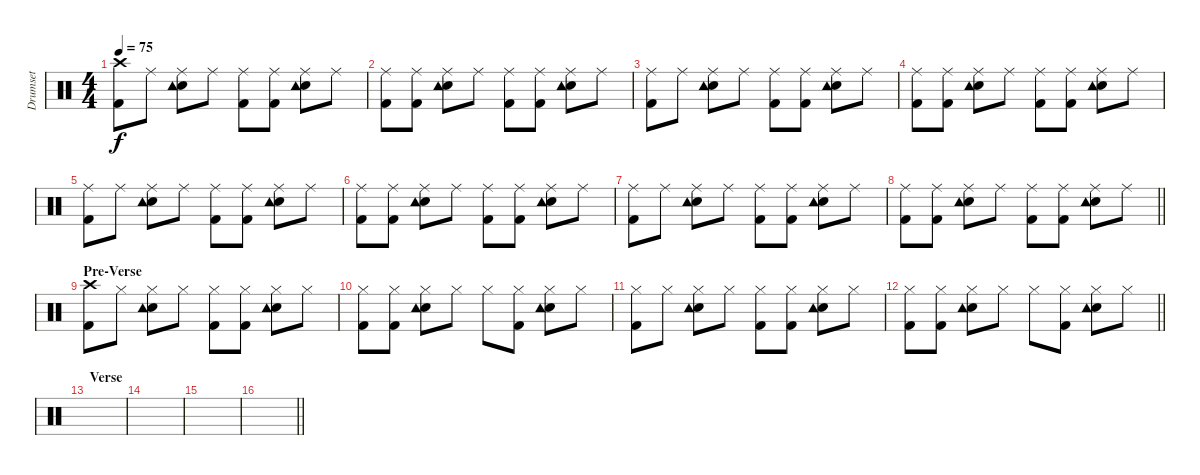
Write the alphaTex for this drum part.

\track ("Drumset" "Drumset") {instrument percussion}
\staff {score}
\articulation defaults
\ts (4 4)
\tempo 75
\clef neutral
\ks c
("Crash high (hit)" "Kick (hit) 2").8{dy f} "Ride (middle)".8 ("Ride (middle)" "Electric Snare (hit)" "Tambourine (hit)").8 "Ride (middle)".8 ("Ride (middle)" "Kick (hit) 2").8 ("Ride (middle)" "Kick (hit) 2").8 ("Ride (middle)" "Electric Snare (hit)" "Tambourine (hit)").8 "Ride (middle)".8 |
("Ride (middle)" "Kick (hit) 2").8 ("Ride (middle)" "Kick (hit) 2").8 ("Ride (middle)" "Electric Snare (hit)" "Tambourine (hit)").8 "Ride (middle)".8 ("Ride (middle)" "Kick (hit) 2").8 ("Ride (middle)" "Kick (hit) 2").8 ("Ride (middle)" "Electric Snare (hit)" "Tambourine (hit)").8 "Ride (middle)".8 |
("Ride (middle)" "Kick (hit) 2").8 "Ride (middle)".8 ("Ride (middle)" "Electric Snare (hit)" "Tambourine (hit)").8 "Ride (middle)".8 ("Ride (middle)" "Kick (hit) 2").8 ("Ride (middle)" "Kick (hit) 2").8 ("Ride (middle)" "Electric Snare (hit)" "Tambourine (hit)").8 "Ride (middle)".8 |
("Ride (middle)" "Kick (hit) 2").8 ("Ride (middle)" "Kick (hit) 2").8 ("Ride (middle)" "Electric Snare (hit)" "Tambourine (hit)").8 "Ride (middle)".8 ("Ride (middle)" "Kick (hit) 2").8 ("Ride (middle)" "Kick (hit) 2").8 ("Ride (middle)" "Electric Snare (hit)" "Tambourine (hit)").8 "Ride (middle)".8 |
("Ride (middle)" "Kick (hit) 2").8 "Ride (middle)".8 ("Ride (middle)" "Electric Snare (hit)" "Tambourine (hit)").8 "Ride (middle)".8 ("Ride (middle)" "Kick (hit) 2").8 ("Ride (middle)" "Kick (hit) 2").8 ("Ride (middle)" "Electric Snare (hit)" "Tambourine (hit)").8 "Ride (middle)".8 |
("Ride (middle)" "Kick (hit) 2").8 ("Ride (middle)" "Kick (hit) 2").8 ("Ride (middle)" "Electric Snare (hit)" "Tambourine (hit)").8 "Ride (middle)".8 ("Ride (middle)" "Kick (hit) 2").8 ("Ride (middle)" "Kick (hit) 2").8 ("Ride (middle)" "Electric Snare (hit)" "Tambourine (hit)").8 "Ride (middle)".8 |
("Ride (middle)" "Kick (hit) 2").8 "Ride (middle)".8 ("Ride (middle)" "Electric Snare (hit)" "Tambourine (hit)").8 "Ride (middle)".8 ("Ride (middle)" "Kick (hit) 2").8 ("Ride (middle)" "Kick (hit) 2").8 ("Ride (middle)" "Electric Snare (hit)" "Tambourine (hit)").8 "Ride (middle)".8 |
\barLineRight lightlight
("Ride (middle)" "Kick (hit) 2").8 ("Ride (middle)" "Kick (hit) 2").8 ("Ride (middle)" "Electric Snare (hit)" "Tambourine (hit)").8 "Ride (middle)".8 ("Ride (middle)" "Kick (hit) 2").8 ("Ride (middle)" "Kick (hit) 2").8 ("Ride (middle)" "Electric Snare (hit)" "Tambourine (hit)").8 "Ride (middle)".8 |
\section ("" "Pre-Verse")
("Crash high (hit)" "Kick (hit) 2").8 "Hi-Hat (closed)".8 ("Hi-Hat (closed)" "Electric Snare (hit)" "Tambourine (hit)").8 "Hi-Hat (closed)".8 ("Hi-Hat (closed)" "Kick (hit) 2").8 ("Hi-Hat (closed)" "Kick (hit) 2").8 ("Hi-Hat (closed)" "Electric Snare (hit)" "Tambourine (hit)").8 "Hi-Hat (closed)".8 |
("Hi-Hat (closed)" "Kick (hit) 2").8 ("Hi-Hat (closed)" "Kick (hit) 2").8 ("Hi-Hat (closed)" "Electric Snare (hit)" "Tambourine (hit)").8 "Hi-Hat (closed)".8 "Hi-Hat (closed)".8 ("Hi-Hat (closed)" "Kick (hit) 2").8 ("Hi-Hat (closed)" "Electric Snare (hit)" "Tambourine (hit)").8 "Hi-Hat (closed)".8 |
("Hi-Hat (closed)" "Kick (hit) 2").8 "Hi-Hat (closed)".8 ("Hi-Hat (closed)" "Electric Snare (hit)" "Tambourine (hit)").8 "Hi-Hat (closed)".8 ("Hi-Hat (closed)" "Kick (hit) 2").8 ("Hi-Hat (closed)" "Kick (hit) 2").8 ("Hi-Hat (closed)" "Electric Snare (hit)" "Tambourine (hit)").8 "Hi-Hat (closed)".8 |
\barLineRight lightlight
("Hi-Hat (closed)" "Kick (hit) 2").8 ("Hi-Hat (closed)" "Kick (hit) 2").8 ("Hi-Hat (closed)" "Electric Snare (hit)" "Tambourine (hit)").8 "Hi-Hat (closed)".8 "Hi-Hat (closed)".8 ("Hi-Hat (closed)" "Kick (hit) 2").8 ("Hi-Hat (closed)" "Electric Snare (hit)" "Tambourine (hit)").8 "Hi-Hat (closed)".8 |
\section ("" "Verse")
|
|
|
\barLineRight lightlight
